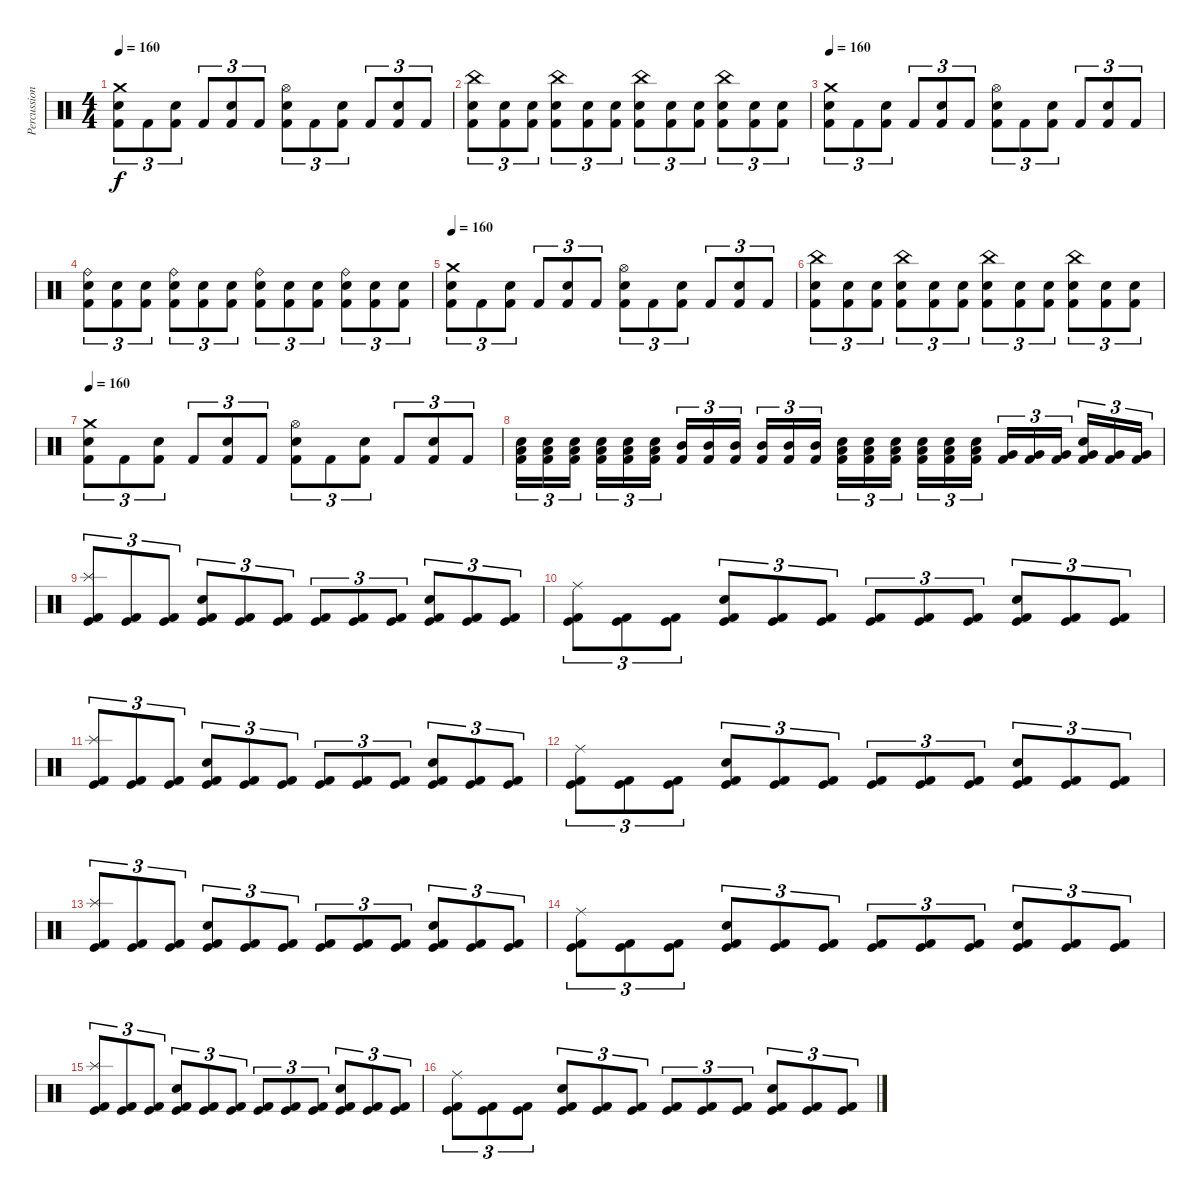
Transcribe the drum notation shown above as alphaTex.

\track ("Percussion" "Percussion") {instrument percussion}
\staff {score}
\articulation defaults
\ts (4 4)
\tempo 160
\clef neutral
\ks c
("Crash medium (hit)" "Electric Snare (hit)" "Kick (hit) 2").8{tu (3 2) dy f} "Kick (hit) 2".8{tu (3 2)} ("Electric Snare (hit)" "Kick (hit) 2").8{tu (3 2)} "Kick (hit) 2".8{tu (3 2)} ("Electric Snare (hit)" "Kick (hit) 2").8{tu (3 2)} "Kick (hit) 2".8{tu (3 2)} ("Hi-Hat (open)" "Electric Snare (hit)" "Kick (hit) 2").8{tu (3 2)} "Kick (hit) 2".8{tu (3 2)} ("Electric Snare (hit)" "Kick (hit) 2").8{tu (3 2)} "Kick (hit) 2".8{tu (3 2)} ("Electric Snare (hit)" "Kick (hit) 2").8{tu (3 2)} "Kick (hit) 2".8{tu (3 2)} |
("China (hit)" "Electric Snare (hit)" "Kick (hit) 2").8{tu (3 2)} ("Electric Snare (hit)" "Kick (hit) 2").8{tu (3 2)} ("Electric Snare (hit)" "Kick (hit) 2").8{tu (3 2)} ("China (hit)" "Electric Snare (hit)" "Kick (hit) 2").8{tu (3 2)} ("Electric Snare (hit)" "Kick (hit) 2").8{tu (3 2)} ("Electric Snare (hit)" "Kick (hit) 2").8{tu (3 2)} ("China (hit)" "Electric Snare (hit)" "Kick (hit) 2").8{tu (3 2)} ("Electric Snare (hit)" "Kick (hit) 2").8{tu (3 2)} ("Electric Snare (hit)" "Kick (hit) 2").8{tu (3 2)} ("China (hit)" "Electric Snare (hit)" "Kick (hit) 2").8{tu (3 2)} ("Electric Snare (hit)" "Kick (hit) 2").8{tu (3 2)} ("Electric Snare (hit)" "Kick (hit) 2").8{tu (3 2)} |
\tempo 160
("Crash medium (hit)" "Electric Snare (hit)" "Kick (hit) 2").8{tu (3 2)} "Kick (hit) 2".8{tu (3 2)} ("Electric Snare (hit)" "Kick (hit) 2").8{tu (3 2)} "Kick (hit) 2".8{tu (3 2)} ("Electric Snare (hit)" "Kick (hit) 2").8{tu (3 2)} "Kick (hit) 2".8{tu (3 2)} ("Hi-Hat (open)" "Electric Snare (hit)" "Kick (hit) 2").8{tu (3 2)} "Kick (hit) 2".8{tu (3 2)} ("Electric Snare (hit)" "Kick (hit) 2").8{tu (3 2)} "Kick (hit) 2".8{tu (3 2)} ("Electric Snare (hit)" "Kick (hit) 2").8{tu (3 2)} "Kick (hit) 2".8{tu (3 2)} |
("Ride (bell)" "Electric Snare (hit)" "Kick (hit) 2").8{tu (3 2)} ("Electric Snare (hit)" "Kick (hit) 2").8{tu (3 2)} ("Electric Snare (hit)" "Kick (hit) 2").8{tu (3 2)} ("Ride (bell)" "Electric Snare (hit)" "Kick (hit) 2").8{tu (3 2)} ("Electric Snare (hit)" "Kick (hit) 2").8{tu (3 2)} ("Electric Snare (hit)" "Kick (hit) 2").8{tu (3 2)} ("Ride (bell)" "Electric Snare (hit)" "Kick (hit) 2").8{tu (3 2)} ("Electric Snare (hit)" "Kick (hit) 2").8{tu (3 2)} ("Electric Snare (hit)" "Kick (hit) 2").8{tu (3 2)} ("Ride (bell)" "Electric Snare (hit)" "Kick (hit) 2").8{tu (3 2)} ("Electric Snare (hit)" "Kick (hit) 2").8{tu (3 2)} ("Electric Snare (hit)" "Kick (hit) 2").8{tu (3 2)} |
\tempo 160
("Crash medium (hit)" "Electric Snare (hit)" "Kick (hit) 2").8{tu (3 2)} "Kick (hit) 2".8{tu (3 2)} ("Electric Snare (hit)" "Kick (hit) 2").8{tu (3 2)} "Kick (hit) 2".8{tu (3 2)} ("Electric Snare (hit)" "Kick (hit) 2").8{tu (3 2)} "Kick (hit) 2".8{tu (3 2)} ("Hi-Hat (open)" "Electric Snare (hit)" "Kick (hit) 2").8{tu (3 2)} "Kick (hit) 2".8{tu (3 2)} ("Electric Snare (hit)" "Kick (hit) 2").8{tu (3 2)} "Kick (hit) 2".8{tu (3 2)} ("Electric Snare (hit)" "Kick (hit) 2").8{tu (3 2)} "Kick (hit) 2".8{tu (3 2)} |
("China (hit)" "Electric Snare (hit)" "Kick (hit) 2").8{tu (3 2)} ("Electric Snare (hit)" "Kick (hit) 2").8{tu (3 2)} ("Electric Snare (hit)" "Kick (hit) 2").8{tu (3 2)} ("China (hit)" "Electric Snare (hit)" "Kick (hit) 2").8{tu (3 2)} ("Electric Snare (hit)" "Kick (hit) 2").8{tu (3 2)} ("Electric Snare (hit)" "Kick (hit) 2").8{tu (3 2)} ("China (hit)" "Electric Snare (hit)" "Kick (hit) 2").8{tu (3 2)} ("Electric Snare (hit)" "Kick (hit) 2").8{tu (3 2)} ("Electric Snare (hit)" "Kick (hit) 2").8{tu (3 2)} ("China (hit)" "Electric Snare (hit)" "Kick (hit) 2").8{tu (3 2)} ("Electric Snare (hit)" "Kick (hit) 2").8{tu (3 2)} ("Electric Snare (hit)" "Kick (hit) 2").8{tu (3 2)} |
\tempo 160
("Crash medium (hit)" "Electric Snare (hit)" "Kick (hit) 2").8{tu (3 2)} "Kick (hit) 2".8{tu (3 2)} ("Electric Snare (hit)" "Kick (hit) 2").8{tu (3 2)} "Kick (hit) 2".8{tu (3 2)} ("Electric Snare (hit)" "Kick (hit) 2").8{tu (3 2)} "Kick (hit) 2".8{tu (3 2)} ("Hi-Hat (open)" "Electric Snare (hit)" "Kick (hit) 2").8{tu (3 2)} "Kick (hit) 2".8{tu (3 2)} ("Electric Snare (hit)" "Kick (hit) 2").8{tu (3 2)} "Kick (hit) 2".8{tu (3 2)} ("Electric Snare (hit)" "Kick (hit) 2").8{tu (3 2)} "Kick (hit) 2".8{tu (3 2)} |
("Kick (hit) 2" "Low Tom (hit)" "Electric Snare (hit)").16{tu (3 2)} ("Kick (hit) 2" "Low Tom (hit)" "Electric Snare (hit)").16{tu (3 2)} ("Kick (hit) 2" "Low Tom (hit)" "Electric Snare (hit)").16{tu (3 2) beam splitsecondary} ("Kick (hit) 2" "Low Tom (hit)" "Electric Snare (hit)").16{tu (3 2)} ("Kick (hit) 2" "Low Tom (hit)" "Electric Snare (hit)").16{tu (3 2)} ("Kick (hit) 2" "Low Tom (hit)" "Electric Snare (hit)").16{tu (3 2)} ("Kick (hit) 2" "Mid Tom (hit)").16{tu (3 2)} ("Kick (hit) 2" "Mid Tom (hit)").16{tu (3 2)} ("Kick (hit) 2" "Mid Tom (hit)").16{tu (3 2) beam splitsecondary} ("Kick (hit) 2" "Mid Tom (hit)").16{tu (3 2)} ("Kick (hit) 2" "Mid Tom (hit)").16{tu (3 2)} ("Kick (hit) 2" "Mid Tom (hit)").16{tu (3 2)} ("Kick (hit) 2" "Low Tom (hit)" "Electric Snare (hit)").16{tu (3 2)} ("Kick (hit) 2" "Low Tom (hit)" "Electric Snare (hit)").16{tu (3 2)} ("Kick (hit) 2" "Low Tom (hit)" "Electric Snare (hit)").16{tu (3 2) beam splitsecondary} ("Kick (hit) 2" "Low Tom (hit)" "Electric Snare (hit)").16{tu (3 2)} ("Kick (hit) 2" "Low Tom (hit)" "Electric Snare (hit)").16{tu (3 2)} ("Kick (hit) 2" "Low Tom (hit)" "Electric Snare (hit)").16{tu (3 2)} ("Kick (hit) 2" "Very Low Tom (hit)").16{tu (3 2)} ("Kick (hit) 2" "Very Low Tom (hit)").16{tu (3 2)} ("Kick (hit) 2" "Very Low Tom (hit)").16{tu (3 2) beam splitsecondary} ("Kick (hit) 2" "Very Low Tom (hit)" "Electric Snare (hit)").16{tu (3 2)} ("Kick (hit) 2" "Very Low Tom (hit)").16{tu (3 2)} ("Kick (hit) 2" "Very Low Tom (hit)").16{tu (3 2)} |
("Splash (hit)" "Kick (hit)" "Kick (hit) 2").8{tu (3 2)} ("Kick (hit)" "Kick (hit) 2").8{tu (3 2)} ("Kick (hit)" "Kick (hit) 2").8{tu (3 2)} ("Kick (hit)" "Electric Snare (hit)" "Kick (hit) 2").8{tu (3 2)} ("Kick (hit)" "Kick (hit) 2").8{tu (3 2)} ("Kick (hit)" "Kick (hit) 2").8{tu (3 2)} ("Kick (hit)" "Kick (hit) 2").8{tu (3 2)} ("Kick (hit)" "Kick (hit) 2").8{tu (3 2)} ("Kick (hit)" "Kick (hit) 2").8{tu (3 2)} ("Kick (hit)" "Electric Snare (hit)" "Kick (hit) 2").8{tu (3 2)} ("Kick (hit)" "Kick (hit) 2").8{tu (3 2)} ("Kick (hit)" "Kick (hit) 2").8{tu (3 2)} |
("Ride (middle)" "Kick (hit)" "Kick (hit) 2").8{tu (3 2)} ("Kick (hit)" "Kick (hit) 2").8{tu (3 2)} ("Kick (hit)" "Kick (hit) 2").8{tu (3 2)} ("Kick (hit)" "Electric Snare (hit)" "Kick (hit) 2").8{tu (3 2)} ("Kick (hit)" "Kick (hit) 2").8{tu (3 2)} ("Kick (hit)" "Kick (hit) 2").8{tu (3 2)} ("Kick (hit)" "Kick (hit) 2").8{tu (3 2)} ("Kick (hit)" "Kick (hit) 2").8{tu (3 2)} ("Kick (hit)" "Kick (hit) 2").8{tu (3 2)} ("Kick (hit)" "Electric Snare (hit)" "Kick (hit) 2").8{tu (3 2)} ("Kick (hit)" "Kick (hit) 2").8{tu (3 2)} ("Kick (hit)" "Kick (hit) 2").8{tu (3 2)} |
("Splash (hit)" "Kick (hit)" "Kick (hit) 2").8{tu (3 2)} ("Kick (hit)" "Kick (hit) 2").8{tu (3 2)} ("Kick (hit)" "Kick (hit) 2").8{tu (3 2)} ("Kick (hit)" "Electric Snare (hit)" "Kick (hit) 2").8{tu (3 2)} ("Kick (hit)" "Kick (hit) 2").8{tu (3 2)} ("Kick (hit)" "Kick (hit) 2").8{tu (3 2)} ("Kick (hit)" "Kick (hit) 2").8{tu (3 2)} ("Kick (hit)" "Kick (hit) 2").8{tu (3 2)} ("Kick (hit)" "Kick (hit) 2").8{tu (3 2)} ("Kick (hit)" "Electric Snare (hit)" "Kick (hit) 2").8{tu (3 2)} ("Kick (hit)" "Kick (hit) 2").8{tu (3 2)} ("Kick (hit)" "Kick (hit) 2").8{tu (3 2)} |
("Ride (middle)" "Kick (hit)" "Kick (hit) 2").8{tu (3 2)} ("Kick (hit)" "Kick (hit) 2").8{tu (3 2)} ("Kick (hit)" "Kick (hit) 2").8{tu (3 2)} ("Kick (hit)" "Electric Snare (hit)" "Kick (hit) 2").8{tu (3 2)} ("Kick (hit)" "Kick (hit) 2").8{tu (3 2)} ("Kick (hit)" "Kick (hit) 2").8{tu (3 2)} ("Kick (hit)" "Kick (hit) 2").8{tu (3 2)} ("Kick (hit)" "Kick (hit) 2").8{tu (3 2)} ("Kick (hit)" "Kick (hit) 2").8{tu (3 2)} ("Kick (hit)" "Electric Snare (hit)" "Kick (hit) 2").8{tu (3 2)} ("Kick (hit)" "Kick (hit) 2").8{tu (3 2)} ("Kick (hit)" "Kick (hit) 2").8{tu (3 2)} |
("Splash (hit)" "Kick (hit)" "Kick (hit) 2").8{tu (3 2)} ("Kick (hit)" "Kick (hit) 2").8{tu (3 2)} ("Kick (hit)" "Kick (hit) 2").8{tu (3 2)} ("Kick (hit)" "Electric Snare (hit)" "Kick (hit) 2").8{tu (3 2)} ("Kick (hit)" "Kick (hit) 2").8{tu (3 2)} ("Kick (hit)" "Kick (hit) 2").8{tu (3 2)} ("Kick (hit)" "Kick (hit) 2").8{tu (3 2)} ("Kick (hit)" "Kick (hit) 2").8{tu (3 2)} ("Kick (hit)" "Kick (hit) 2").8{tu (3 2)} ("Kick (hit)" "Electric Snare (hit)" "Kick (hit) 2").8{tu (3 2)} ("Kick (hit)" "Kick (hit) 2").8{tu (3 2)} ("Kick (hit)" "Kick (hit) 2").8{tu (3 2)} |
("Ride (middle)" "Kick (hit)" "Kick (hit) 2").8{tu (3 2)} ("Kick (hit)" "Kick (hit) 2").8{tu (3 2)} ("Kick (hit)" "Kick (hit) 2").8{tu (3 2)} ("Kick (hit)" "Electric Snare (hit)" "Kick (hit) 2").8{tu (3 2)} ("Kick (hit)" "Kick (hit) 2").8{tu (3 2)} ("Kick (hit)" "Kick (hit) 2").8{tu (3 2)} ("Kick (hit)" "Kick (hit) 2").8{tu (3 2)} ("Kick (hit)" "Kick (hit) 2").8{tu (3 2)} ("Kick (hit)" "Kick (hit) 2").8{tu (3 2)} ("Kick (hit)" "Electric Snare (hit)" "Kick (hit) 2").8{tu (3 2)} ("Kick (hit)" "Kick (hit) 2").8{tu (3 2)} ("Kick (hit)" "Kick (hit) 2").8{tu (3 2)} |
("Splash (hit)" "Kick (hit)" "Kick (hit) 2").8{tu (3 2)} ("Kick (hit)" "Kick (hit) 2").8{tu (3 2)} ("Kick (hit)" "Kick (hit) 2").8{tu (3 2)} ("Kick (hit)" "Electric Snare (hit)" "Kick (hit) 2").8{tu (3 2)} ("Kick (hit)" "Kick (hit) 2").8{tu (3 2)} ("Kick (hit)" "Kick (hit) 2").8{tu (3 2)} ("Kick (hit)" "Kick (hit) 2").8{tu (3 2)} ("Kick (hit)" "Kick (hit) 2").8{tu (3 2)} ("Kick (hit)" "Kick (hit) 2").8{tu (3 2)} ("Kick (hit)" "Electric Snare (hit)" "Kick (hit) 2").8{tu (3 2)} ("Kick (hit)" "Kick (hit) 2").8{tu (3 2)} ("Kick (hit)" "Kick (hit) 2").8{tu (3 2)} |
("Ride (middle)" "Kick (hit)" "Kick (hit) 2").8{tu (3 2)} ("Kick (hit)" "Kick (hit) 2").8{tu (3 2)} ("Kick (hit)" "Kick (hit) 2").8{tu (3 2)} ("Kick (hit)" "Electric Snare (hit)" "Kick (hit) 2").8{tu (3 2)} ("Kick (hit)" "Kick (hit) 2").8{tu (3 2)} ("Kick (hit)" "Kick (hit) 2").8{tu (3 2)} ("Kick (hit)" "Kick (hit) 2").8{tu (3 2)} ("Kick (hit)" "Kick (hit) 2").8{tu (3 2)} ("Kick (hit)" "Kick (hit) 2").8{tu (3 2)} ("Kick (hit)" "Electric Snare (hit)" "Kick (hit) 2").8{tu (3 2)} ("Kick (hit)" "Kick (hit) 2").8{tu (3 2)} ("Kick (hit)" "Kick (hit) 2").8{tu (3 2)}
